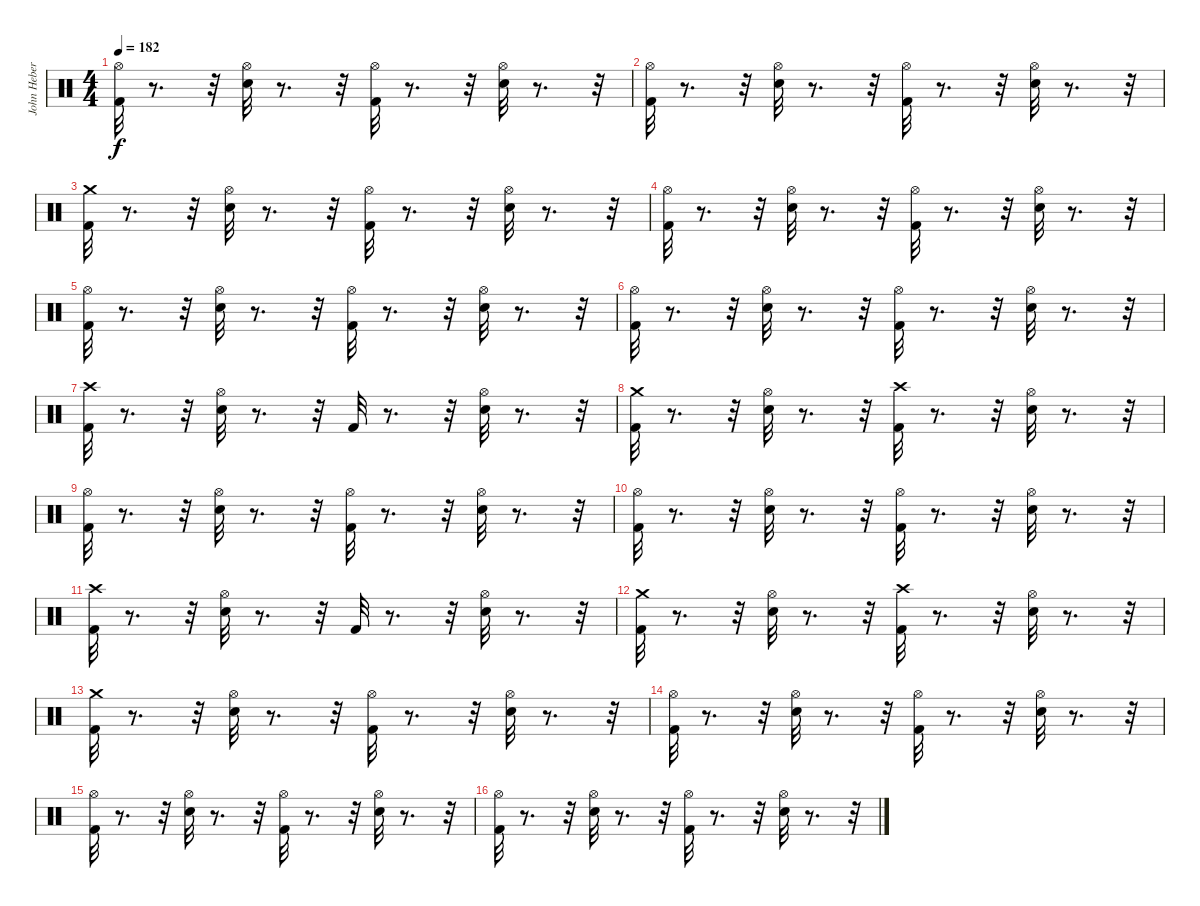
\track ("John Hebert" "John Heber") {instrument percussion}
\staff {score}
\articulation defaults
\ts (4 4)
\tempo 182
\clef neutral
\ks c
("Hi-Hat (open)" "Kick (hit) 2").32{dy f} r.8{d} r.32 ("Hi-Hat (open)" "Snare (hit) 2").32 r.8{d} r.32 ("Hi-Hat (open)" "Kick (hit) 2").32 r.8{d} r.32 ("Hi-Hat (open)" "Snare (hit) 2").32 r.8{d} r.32 |
("Hi-Hat (open)" "Kick (hit) 2").32 r.8{d} r.32 ("Hi-Hat (open)" "Snare (hit) 2").32 r.8{d} r.32 ("Hi-Hat (open)" "Kick (hit) 2").32 r.8{d} r.32 ("Hi-Hat (open)" "Snare (hit) 2").32 r.8{d} r.32 |
("Crash medium (hit)" "Kick (hit) 2").32 r.8{d} r.32 ("Hi-Hat (open)" "Snare (hit) 2").32 r.8{d} r.32 ("Hi-Hat (open)" "Kick (hit) 2").32 r.8{d} r.32 ("Hi-Hat (open)" "Snare (hit) 2").32 r.8{d} r.32 |
("Hi-Hat (open)" "Kick (hit) 2").32 r.8{d} r.32 ("Hi-Hat (open)" "Snare (hit) 2").32 r.8{d} r.32 ("Hi-Hat (open)" "Kick (hit) 2").32 r.8{d} r.32 ("Hi-Hat (open)" "Snare (hit) 2").32 r.8{d} r.32 |
("Hi-Hat (open)" "Kick (hit) 2").32 r.8{d} r.32 ("Hi-Hat (open)" "Snare (hit) 2").32 r.8{d} r.32 ("Hi-Hat (open)" "Kick (hit) 2").32 r.8{d} r.32 ("Hi-Hat (open)" "Snare (hit) 2").32 r.8{d} r.32 |
("Hi-Hat (open)" "Kick (hit) 2").32 r.8{d} r.32 ("Hi-Hat (open)" "Snare (hit) 2").32 r.8{d} r.32 ("Hi-Hat (open)" "Kick (hit) 2").32 r.8{d} r.32 ("Hi-Hat (open)" "Snare (hit) 2").32 r.8{d} r.32 |
("Kick (hit) 2" "Crash high (hit)").32 r.8{d} r.32 ("Snare (hit) 2" "Hi-Hat (open)").32 r.8{d} r.32 "Kick (hit) 2".32 r.8{d} r.32 ("Snare (hit) 2" "Hi-Hat (open)").32 r.8{d} r.32 |
("Kick (hit) 2" "Crash medium (hit)").32 r.8{d} r.32 ("Hi-Hat (open)" "Snare (hit) 2").32 r.8{d} r.32 ("Kick (hit) 2" "Crash high (hit)").32 r.8{d} r.32 ("Snare (hit) 2" "Hi-Hat (open)").32 r.8{d} r.32 |
("Hi-Hat (open)" "Kick (hit) 2").32 r.8{d} r.32 ("Hi-Hat (open)" "Snare (hit) 2").32 r.8{d} r.32 ("Hi-Hat (open)" "Kick (hit) 2").32 r.8{d} r.32 ("Hi-Hat (open)" "Snare (hit) 2").32 r.8{d} r.32 |
("Hi-Hat (open)" "Kick (hit) 2").32 r.8{d} r.32 ("Hi-Hat (open)" "Snare (hit) 2").32 r.8{d} r.32 ("Hi-Hat (open)" "Kick (hit) 2").32 r.8{d} r.32 ("Hi-Hat (open)" "Snare (hit) 2").32 r.8{d} r.32 |
("Kick (hit) 2" "Crash high (hit)").32 r.8{d} r.32 ("Snare (hit) 2" "Hi-Hat (open)").32 r.8{d} r.32 "Kick (hit) 2".32 r.8{d} r.32 ("Snare (hit) 2" "Hi-Hat (open)").32 r.8{d} r.32 |
("Kick (hit) 2" "Crash medium (hit)").32 r.8{d} r.32 ("Hi-Hat (open)" "Snare (hit) 2").32 r.8{d} r.32 ("Kick (hit) 2" "Crash high (hit)").32 r.8{d} r.32 ("Snare (hit) 2" "Hi-Hat (open)").32 r.8{d} r.32 |
("Crash medium (hit)" "Kick (hit) 2").32 r.8{d} r.32 ("Hi-Hat (open)" "Snare (hit) 2").32 r.8{d} r.32 ("Hi-Hat (open)" "Kick (hit) 2").32 r.8{d} r.32 ("Hi-Hat (open)" "Snare (hit) 2").32 r.8{d} r.32 |
("Hi-Hat (open)" "Kick (hit) 2").32 r.8{d} r.32 ("Hi-Hat (open)" "Snare (hit) 2").32 r.8{d} r.32 ("Hi-Hat (open)" "Kick (hit) 2").32 r.8{d} r.32 ("Hi-Hat (open)" "Snare (hit) 2").32 r.8{d} r.32 |
("Hi-Hat (open)" "Kick (hit) 2").32 r.8{d} r.32 ("Hi-Hat (open)" "Snare (hit) 2").32 r.8{d} r.32 ("Hi-Hat (open)" "Kick (hit) 2").32 r.8{d} r.32 ("Hi-Hat (open)" "Snare (hit) 2").32 r.8{d} r.32 |
("Hi-Hat (open)" "Kick (hit) 2").32 r.8{d} r.32 ("Hi-Hat (open)" "Snare (hit) 2").32 r.8{d} r.32 ("Hi-Hat (open)" "Kick (hit) 2").32 r.8{d} r.32 ("Hi-Hat (open)" "Snare (hit) 2").32 r.8{d} r.32
